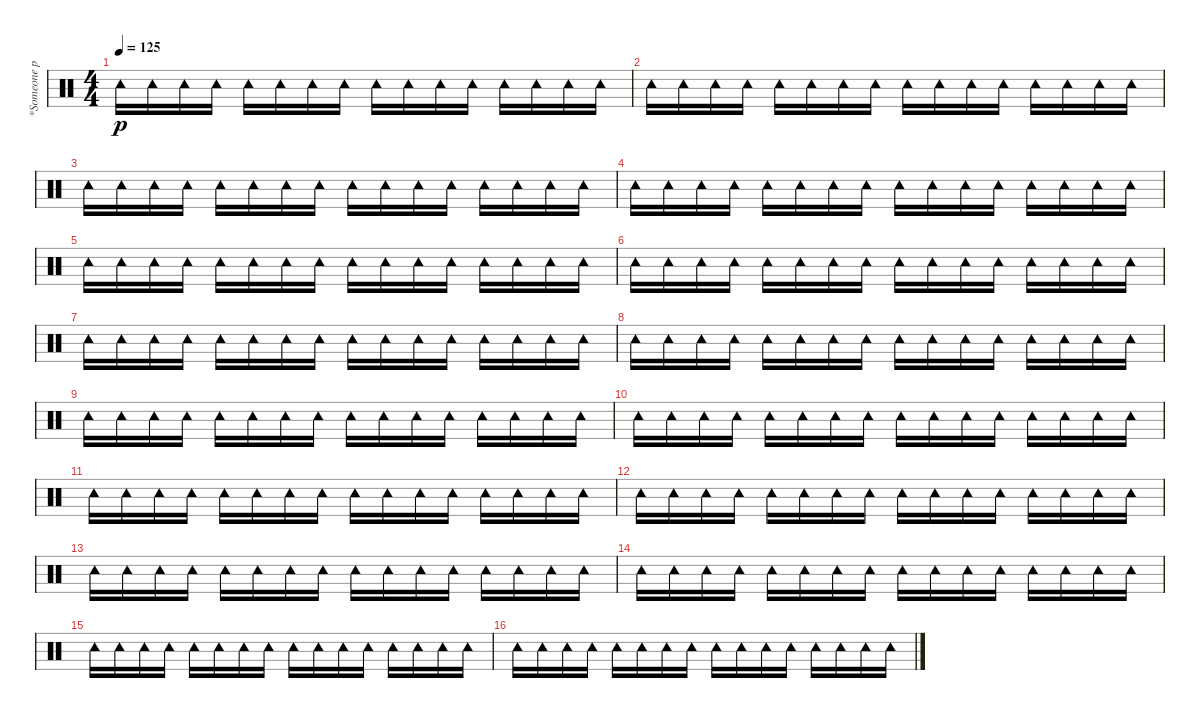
\track ("*Someone play the tambourine" "*Someone p") {instrument percussion}
\staff {score}
\articulation defaults
\ts (4 4)
\tempo 125
\clef neutral
\ks c "Tambourine (hit)".16{dy p} "Tambourine (hit)".16 "Tambourine (hit)".16 "Tambourine (hit)".16 "Tambourine (hit)".16 "Tambourine (hit)".16 "Tambourine (hit)".16 "Tambourine (hit)".16 "Tambourine (hit)".16 "Tambourine (hit)".16 "Tambourine (hit)".16 "Tambourine (hit)".16 "Tambourine (hit)".16 "Tambourine (hit)".16 "Tambourine (hit)".16 "Tambourine (hit)".16
|
"Tambourine (hit)".16 "Tambourine (hit)".16 "Tambourine (hit)".16 "Tambourine (hit)".16 "Tambourine (hit)".16 "Tambourine (hit)".16 "Tambourine (hit)".16 "Tambourine (hit)".16 "Tambourine (hit)".16 "Tambourine (hit)".16 "Tambourine (hit)".16 "Tambourine (hit)".16 "Tambourine (hit)".16 "Tambourine (hit)".16 "Tambourine (hit)".16 "Tambourine (hit)".16 |
"Tambourine (hit)".16 "Tambourine (hit)".16 "Tambourine (hit)".16 "Tambourine (hit)".16 "Tambourine (hit)".16 "Tambourine (hit)".16 "Tambourine (hit)".16 "Tambourine (hit)".16 "Tambourine (hit)".16 "Tambourine (hit)".16 "Tambourine (hit)".16 "Tambourine (hit)".16 "Tambourine (hit)".16 "Tambourine (hit)".16 "Tambourine (hit)".16 "Tambourine (hit)".16 |
"Tambourine (hit)".16 "Tambourine (hit)".16 "Tambourine (hit)".16 "Tambourine (hit)".16 "Tambourine (hit)".16 "Tambourine (hit)".16 "Tambourine (hit)".16 "Tambourine (hit)".16 "Tambourine (hit)".16 "Tambourine (hit)".16 "Tambourine (hit)".16 "Tambourine (hit)".16 "Tambourine (hit)".16 "Tambourine (hit)".16 "Tambourine (hit)".16 "Tambourine (hit)".16 |
"Tambourine (hit)".16 "Tambourine (hit)".16 "Tambourine (hit)".16 "Tambourine (hit)".16 "Tambourine (hit)".16 "Tambourine (hit)".16 "Tambourine (hit)".16 "Tambourine (hit)".16 "Tambourine (hit)".16 "Tambourine (hit)".16 "Tambourine (hit)".16 "Tambourine (hit)".16 "Tambourine (hit)".16 "Tambourine (hit)".16 "Tambourine (hit)".16 "Tambourine (hit)".16 |
"Tambourine (hit)".16 "Tambourine (hit)".16 "Tambourine (hit)".16 "Tambourine (hit)".16 "Tambourine (hit)".16 "Tambourine (hit)".16 "Tambourine (hit)".16 "Tambourine (hit)".16 "Tambourine (hit)".16 "Tambourine (hit)".16 "Tambourine (hit)".16 "Tambourine (hit)".16 "Tambourine (hit)".16 "Tambourine (hit)".16 "Tambourine (hit)".16 "Tambourine (hit)".16 |
"Tambourine (hit)".16 "Tambourine (hit)".16 "Tambourine (hit)".16 "Tambourine (hit)".16 "Tambourine (hit)".16 "Tambourine (hit)".16 "Tambourine (hit)".16 "Tambourine (hit)".16 "Tambourine (hit)".16 "Tambourine (hit)".16 "Tambourine (hit)".16 "Tambourine (hit)".16 "Tambourine (hit)".16 "Tambourine (hit)".16 "Tambourine (hit)".16 "Tambourine (hit)".16 |
"Tambourine (hit)".16 "Tambourine (hit)".16 "Tambourine (hit)".16 "Tambourine (hit)".16 "Tambourine (hit)".16 "Tambourine (hit)".16 "Tambourine (hit)".16 "Tambourine (hit)".16 "Tambourine (hit)".16 "Tambourine (hit)".16 "Tambourine (hit)".16 "Tambourine (hit)".16 "Tambourine (hit)".16 "Tambourine (hit)".16 "Tambourine (hit)".16 "Tambourine (hit)".16 |
"Tambourine (hit)".16 "Tambourine (hit)".16 "Tambourine (hit)".16 "Tambourine (hit)".16 "Tambourine (hit)".16 "Tambourine (hit)".16 "Tambourine (hit)".16 "Tambourine (hit)".16 "Tambourine (hit)".16 "Tambourine (hit)".16 "Tambourine (hit)".16 "Tambourine (hit)".16 "Tambourine (hit)".16 "Tambourine (hit)".16 "Tambourine (hit)".16 "Tambourine (hit)".16 |
"Tambourine (hit)".16 "Tambourine (hit)".16 "Tambourine (hit)".16 "Tambourine (hit)".16 "Tambourine (hit)".16 "Tambourine (hit)".16 "Tambourine (hit)".16 "Tambourine (hit)".16 "Tambourine (hit)".16 "Tambourine (hit)".16 "Tambourine (hit)".16 "Tambourine (hit)".16 "Tambourine (hit)".16 "Tambourine (hit)".16 "Tambourine (hit)".16 "Tambourine (hit)".16 |
"Tambourine (hit)".16 "Tambourine (hit)".16 "Tambourine (hit)".16 "Tambourine (hit)".16 "Tambourine (hit)".16 "Tambourine (hit)".16 "Tambourine (hit)".16 "Tambourine (hit)".16 "Tambourine (hit)".16 "Tambourine (hit)".16 "Tambourine (hit)".16 "Tambourine (hit)".16 "Tambourine (hit)".16 "Tambourine (hit)".16 "Tambourine (hit)".16 "Tambourine (hit)".16 |
"Tambourine (hit)".16 "Tambourine (hit)".16 "Tambourine (hit)".16 "Tambourine (hit)".16 "Tambourine (hit)".16 "Tambourine (hit)".16 "Tambourine (hit)".16 "Tambourine (hit)".16 "Tambourine (hit)".16 "Tambourine (hit)".16 "Tambourine (hit)".16 "Tambourine (hit)".16 "Tambourine (hit)".16 "Tambourine (hit)".16 "Tambourine (hit)".16 "Tambourine (hit)".16 |
"Tambourine (hit)".16 "Tambourine (hit)".16 "Tambourine (hit)".16 "Tambourine (hit)".16 "Tambourine (hit)".16 "Tambourine (hit)".16 "Tambourine (hit)".16 "Tambourine (hit)".16 "Tambourine (hit)".16 "Tambourine (hit)".16 "Tambourine (hit)".16 "Tambourine (hit)".16 "Tambourine (hit)".16 "Tambourine (hit)".16 "Tambourine (hit)".16 "Tambourine (hit)".16 |
"Tambourine (hit)".16 "Tambourine (hit)".16 "Tambourine (hit)".16 "Tambourine (hit)".16 "Tambourine (hit)".16 "Tambourine (hit)".16 "Tambourine (hit)".16 "Tambourine (hit)".16 "Tambourine (hit)".16 "Tambourine (hit)".16 "Tambourine (hit)".16 "Tambourine (hit)".16 "Tambourine (hit)".16 "Tambourine (hit)".16 "Tambourine (hit)".16 "Tambourine (hit)".16 |
"Tambourine (hit)".16 "Tambourine (hit)".16 "Tambourine (hit)".16 "Tambourine (hit)".16 "Tambourine (hit)".16 "Tambourine (hit)".16 "Tambourine (hit)".16 "Tambourine (hit)".16 "Tambourine (hit)".16 "Tambourine (hit)".16 "Tambourine (hit)".16 "Tambourine (hit)".16 "Tambourine (hit)".16 "Tambourine (hit)".16 "Tambourine (hit)".16 "Tambourine (hit)".16 |
"Tambourine (hit)".16 "Tambourine (hit)".16 "Tambourine (hit)".16 "Tambourine (hit)".16 "Tambourine (hit)".16 "Tambourine (hit)".16 "Tambourine (hit)".16 "Tambourine (hit)".16 "Tambourine (hit)".16 "Tambourine (hit)".16 "Tambourine (hit)".16 "Tambourine (hit)".16 "Tambourine (hit)".16 "Tambourine (hit)".16 "Tambourine (hit)".16 "Tambourine (hit)".16
